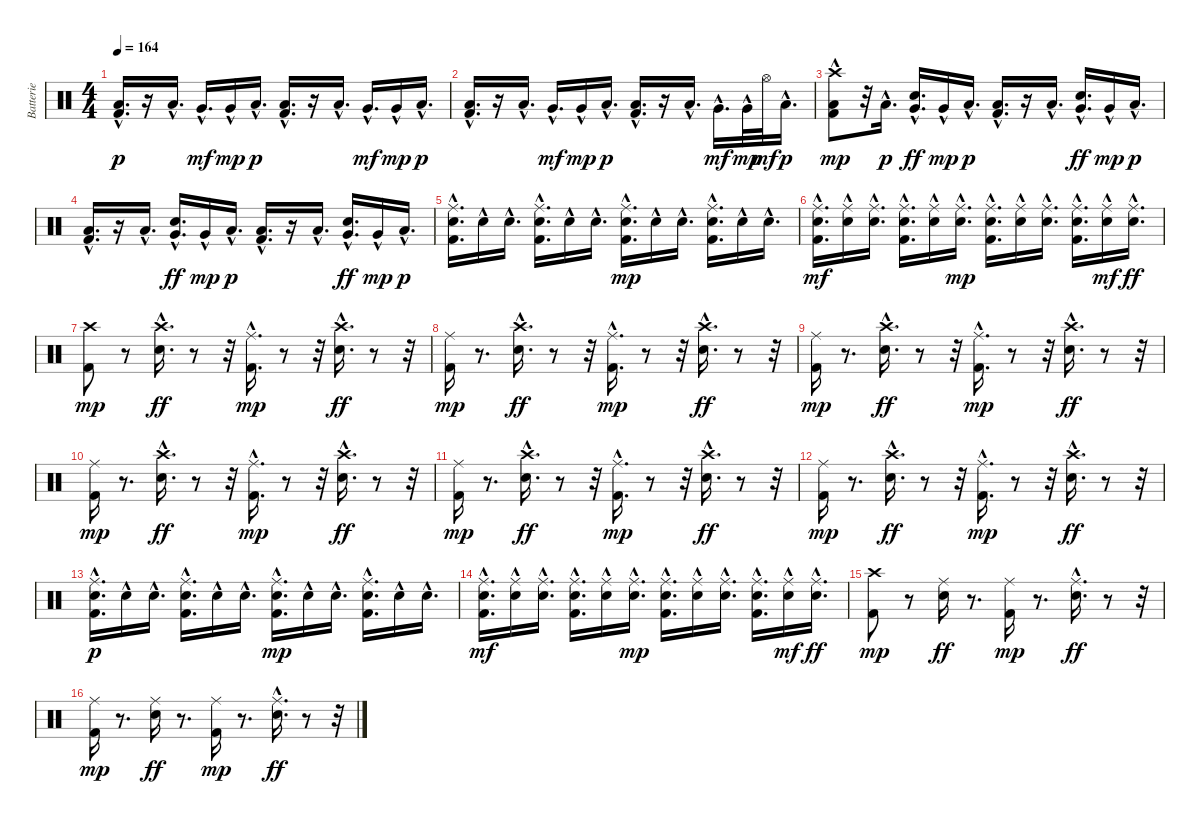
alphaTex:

\track ("Batterie" "Batterie") {instrument percussion}
\staff {score}
\articulation defaults
\ts (4 4)
\tempo 164
\clef neutral
\ks c
("Kick (hit) 2" "Low Floor Tom (hit)"{hac}).16{d dy p} r.16 "Low Floor Tom (hit)"{hac}.16{d} "Very Low Tom (hit)"{hac}.16{d dy mf} "Very Low Tom (hit)"{hac}.16{dy mp} "Low Floor Tom (hit)"{hac}.16{d dy p} ("Kick (hit) 2"{hac} "Low Floor Tom (hit)"{hac}).16{d} r.16 "Low Floor Tom (hit)"{hac}.16{d} "Very Low Tom (hit)"{hac}.16{d dy mf} "Very Low Tom (hit)"{hac}.16{dy mp} "Low Floor Tom (hit)"{hac}.16{d dy p} |
("Kick (hit) 2" "Low Floor Tom (hit)"{hac}).16{d} r.16 "Low Floor Tom (hit)"{hac}.16{d} "Very Low Tom (hit)"{hac}.16{d dy mf} "Very Low Tom (hit)"{hac}.16{dy mp} "Low Floor Tom (hit)"{hac}.16{d dy p} ("Kick (hit) 2"{hac} "Low Floor Tom (hit)"{hac}).16{d} r.16 "Low Floor Tom (hit)"{hac}.16{d} "Very Low Tom (hit)"{hac}.16{d dy mf} "Very Low Tom (hit)"{hac}.32{dy mp} "Hi-Hat (open)".32{dy mf} "Low Floor Tom (hit)"{hac}.16{d dy p} |
("Kick (hit) 2" "Crash high (hit)" "Low Floor Tom (hit)"{hac}).8{dy mp} r.32 "Low Floor Tom (hit)"{hac}.16{d dy p} ("Very Low Tom (hit)"{hac} "Electric Snare (hit)").16{d dy ff} "Very Low Tom (hit)"{hac}.16{dy mp} "Low Floor Tom (hit)"{hac}.16{d dy p} ("Kick (hit) 2"{hac} "Low Floor Tom (hit)"{hac}).16{d} r.16 "Low Floor Tom (hit)"{hac}.16{d} ("Very Low Tom (hit)"{hac} "Electric Snare (hit)").16{d dy ff} "Very Low Tom (hit)"{hac}.16{dy mp} "Low Floor Tom (hit)"{hac}.16{d dy p} |
("Kick (hit) 2" "Low Floor Tom (hit)"{hac}).16{d} r.16 "Low Floor Tom (hit)"{hac}.16{d} ("Very Low Tom (hit)"{hac} "Electric Snare (hit)").16{d dy ff} "Very Low Tom (hit)"{hac}.16{dy mp} "Low Floor Tom (hit)"{hac}.16{d dy p} ("Kick (hit) 2"{hac} "Low Floor Tom (hit)"{hac}).16{d} r.16 "Low Floor Tom (hit)"{hac}.16{d} ("Very Low Tom (hit)"{hac} "Electric Snare (hit)").16{d dy ff} "Very Low Tom (hit)"{hac}.16{dy mp} "Low Floor Tom (hit)"{hac}.16{d dy p} |
("Kick (hit) 2" "Ride (middle)" "Electric Snare (hit)"{hac}).16{d} "Electric Snare (hit)"{hac}.16 "Electric Snare (hit)"{hac}.16{d} ("Kick (hit) 2" "Ride (middle)" "Electric Snare (hit)"{hac}).16{d} "Electric Snare (hit)"{hac}.16 "Electric Snare (hit)"{hac}.16{d} ("Kick (hit) 2"{hac} "Ride (middle)" "Electric Snare (hit)"{hac}).16{d dy mp} "Electric Snare (hit)"{hac}.16 "Electric Snare (hit)"{hac}.16{d} ("Kick (hit) 2" "Ride (middle)"{hac} "Electric Snare (hit)"{hac}).16{d} "Electric Snare (hit)"{hac}.16 "Electric Snare (hit)"{hac}.16{d} |
("Kick (hit) 2" "Ride (middle)" "Electric Snare (hit)"{hac}).16{d dy mf} ("Ride (middle)"{hac} "Electric Snare (hit)"{hac}).16 ("Ride (middle)"{hac} "Electric Snare (hit)"{hac}).16{d} ("Kick (hit) 2" "Ride (middle)" "Electric Snare (hit)"{hac}).16{d} ("Ride (middle)"{hac} "Electric Snare (hit)"{hac}).16 ("Ride (middle)"{hac} "Electric Snare (hit)"{hac}).16{d dy mp} ("Kick (hit) 2"{hac} "Ride (middle)" "Electric Snare (hit)"{hac}).16{d} ("Ride (middle)"{hac} "Electric Snare (hit)"{hac}).16 ("Ride (middle)"{hac} "Electric Snare (hit)"{hac}).16{d} ("Kick (hit) 2" "Ride (middle)" "Electric Snare (hit)"{hac}).16{d} ("Ride (middle)"{hac} "Electric Snare (hit)"{hac}).16{dy mf} ("Ride (middle)"{hac} "Electric Snare (hit)"{hac}).16{d dy ff} |
("Kick (hit) 2" "Crash high (hit)").8{dy mp} r.8 ("Crash high (hit)"{hac} "Electric Snare (hit)"{hac}).16{d dy ff} r.8 r.32 ("Kick (hit) 2"{hac} "Ride (middle)").16{d dy mp} r.8 r.32 ("Crash high (hit)"{hac} "Electric Snare (hit)"{hac}).16{d dy ff} r.8 r.32 |
("Kick (hit) 2" "Ride (middle)").16{dy mp} r.8{d} ("Crash high (hit)"{hac} "Electric Snare (hit)"{hac}).16{d dy ff} r.8 r.32 ("Kick (hit) 2"{hac} "Ride (middle)").16{d dy mp} r.8 r.32 ("Crash high (hit)"{hac} "Electric Snare (hit)"{hac}).16{d dy ff} r.8 r.32 |
("Kick (hit) 2" "Ride (middle)").16{dy mp} r.8{d} ("Crash high (hit)"{hac} "Electric Snare (hit)"{hac}).16{d dy ff} r.8 r.32 ("Kick (hit) 2"{hac} "Ride (middle)").16{d dy mp} r.8 r.32 ("Crash high (hit)"{hac} "Electric Snare (hit)"{hac}).16{d dy ff} r.8 r.32 |
("Kick (hit) 2" "Ride (middle)").16{dy mp} r.8{d} ("Crash high (hit)"{hac} "Electric Snare (hit)"{hac}).16{d dy ff} r.8 r.32 ("Kick (hit) 2"{hac} "Ride (middle)").16{d dy mp} r.8 r.32 ("Crash high (hit)"{hac} "Electric Snare (hit)"{hac}).16{d dy ff} r.8 r.32 |
("Kick (hit) 2" "Ride (middle)").16{dy mp} r.8{d} ("Crash high (hit)"{hac} "Electric Snare (hit)"{hac}).16{d dy ff} r.8 r.32 ("Kick (hit) 2"{hac} "Ride (middle)").16{d dy mp} r.8 r.32 ("Crash high (hit)"{hac} "Electric Snare (hit)"{hac}).16{d dy ff} r.8 r.32 |
("Kick (hit) 2" "Ride (middle)").16{dy mp} r.8{d} ("Crash high (hit)"{hac} "Electric Snare (hit)"{hac}).16{d dy ff} r.8 r.32 ("Kick (hit) 2"{hac} "Ride (middle)").16{d dy mp} r.8 r.32 ("Crash high (hit)"{hac} "Electric Snare (hit)"{hac}).16{d dy ff} r.8 r.32 |
("Kick (hit) 2" "Ride (middle)" "Electric Snare (hit)"{hac}).16{d dy p} "Electric Snare (hit)"{hac}.16 "Electric Snare (hit)"{hac}.16{d} ("Kick (hit) 2" "Ride (middle)" "Electric Snare (hit)"{hac}).16{d} "Electric Snare (hit)"{hac}.16 "Electric Snare (hit)"{hac}.16{d} ("Kick (hit) 2"{hac} "Ride (middle)" "Electric Snare (hit)"{hac}).16{d dy mp} "Electric Snare (hit)"{hac}.16 "Electric Snare (hit)"{hac}.16{d} ("Kick (hit) 2" "Ride (middle)"{hac} "Electric Snare (hit)"{hac}).16{d} "Electric Snare (hit)"{hac}.16 "Electric Snare (hit)"{hac}.16{d} |
("Kick (hit) 2" "Ride (middle)" "Electric Snare (hit)"{hac}).16{d dy mf} ("Ride (middle)"{hac} "Electric Snare (hit)"{hac}).16 ("Ride (middle)"{hac} "Electric Snare (hit)"{hac}).16{d} ("Kick (hit) 2" "Ride (middle)" "Electric Snare (hit)"{hac}).16{d} ("Ride (middle)"{hac} "Electric Snare (hit)"{hac}).16 ("Ride (middle)"{hac} "Electric Snare (hit)"{hac}).16{d dy mp} ("Kick (hit) 2"{hac} "Ride (middle)" "Electric Snare (hit)"{hac}).16{d} ("Ride (middle)"{hac} "Electric Snare (hit)"{hac}).16 ("Ride (middle)"{hac} "Electric Snare (hit)"{hac}).16{d} ("Kick (hit) 2" "Ride (middle)" "Electric Snare (hit)"{hac}).16{d} ("Ride (middle)"{hac} "Electric Snare (hit)"{hac}).16{dy mf} ("Ride (middle)"{hac} "Electric Snare (hit)"{hac}).16{d dy ff} |
("Kick (hit) 2" "Crash high (hit)").8{dy mp} r.8 ("Ride (middle)" "Electric Snare (hit)").16{dy ff} r.8{d} ("Kick (hit) 2" "Ride (middle)").16{dy mp} r.8{d} ("Ride (middle)"{hac} "Electric Snare (hit)").16{d dy ff} r.8 r.32 |
("Kick (hit) 2" "Ride (middle)").16{dy mp} r.8{d} ("Ride (middle)" "Electric Snare (hit)").16{dy ff} r.8{d} ("Kick (hit) 2" "Ride (middle)").16{dy mp} r.8{d} ("Ride (middle)"{hac} "Electric Snare (hit)").16{d dy ff} r.8 r.32
